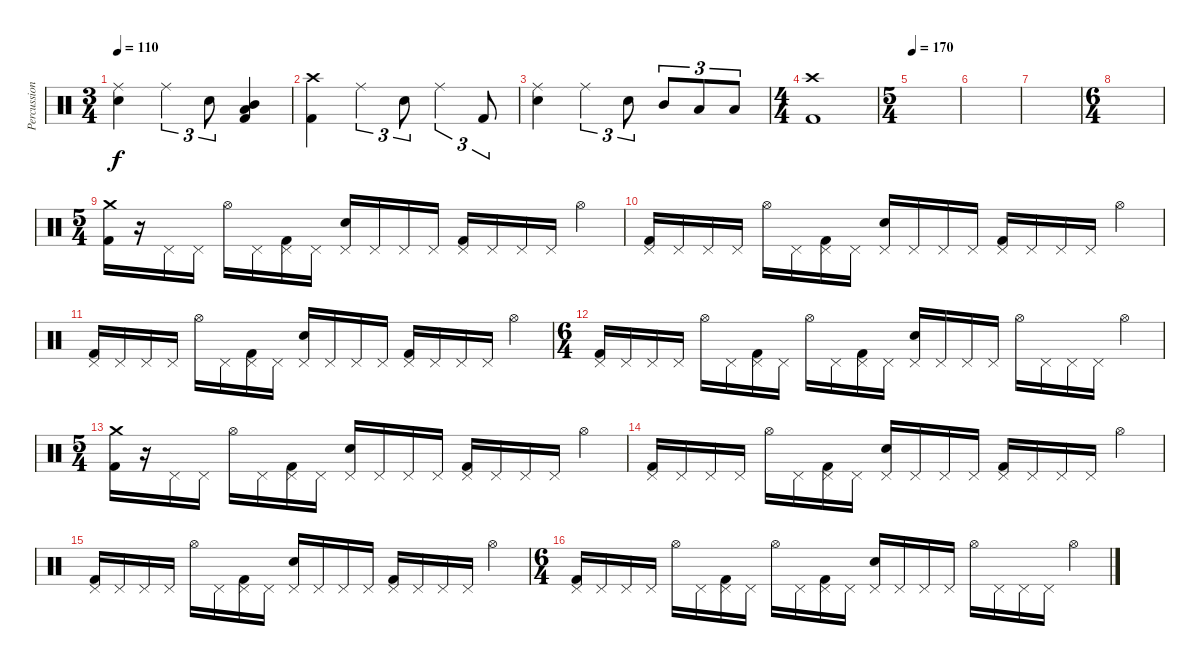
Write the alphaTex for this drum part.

\track ("Percussion" "Percussion") {instrument percussion}
\staff {score}
\articulation defaults
\ts (3 4)
\tempo 110
\clef neutral
\ks c
("Ride (middle)" "Electric Snare (hit)").4{dy f} "Ride (middle)".4{tu (3 2)} "Electric Snare (hit)".8{tu (3 2)} ("Mid Tom (hit)" "Low Floor Tom (hit)" "Kick (hit) 2").4 |
("Crash high (hit)" "Kick (hit) 2").4 "Ride (middle)".4{tu (3 2)} "Electric Snare (hit)".8{tu (3 2)} "Ride (middle)".4{tu (3 2)} "Kick (hit) 2".8{tu (3 2)} |
("Ride (middle)" "Electric Snare (hit)").4 "Ride (middle)".4{tu (3 2)} "Electric Snare (hit)".8{tu (3 2)} "Mid Tom (hit)".8{tu (3 2)} "Low Tom (hit)".8{tu (3 2)} "Low Floor Tom (hit)".8{tu (3 2)} |
\ts (4 4)
("Crash high (hit)" "Kick (hit) 2").1 |
\ts (5 4)
\tempo 170
|
|
|
\ts (6 4)
|
\ts (5 4)
("Crash medium (hit)" "Kick (hit) 2").16 r.16 "Pedal Hi-Hat (hit)".16 "Pedal Hi-Hat (hit)".16 "Hi-Hat (open)".16 "Pedal Hi-Hat (hit)".16 ("Pedal Hi-Hat (hit)" "Kick (hit) 2").16 "Pedal Hi-Hat (hit)".16 ("Pedal Hi-Hat (hit)" "Electric Snare (hit)").16 "Pedal Hi-Hat (hit)".16 "Pedal Hi-Hat (hit)".16 "Pedal Hi-Hat (hit)".16 ("Pedal Hi-Hat (hit)" "Kick (hit) 2").16 "Pedal Hi-Hat (hit)".16 "Pedal Hi-Hat (hit)".16 "Pedal Hi-Hat (hit)".16 "Hi-Hat (open)".4 |
("Pedal Hi-Hat (hit)" "Kick (hit) 2").16 "Pedal Hi-Hat (hit)".16 "Pedal Hi-Hat (hit)".16 "Pedal Hi-Hat (hit)".16 "Hi-Hat (open)".16 "Pedal Hi-Hat (hit)".16 ("Pedal Hi-Hat (hit)" "Kick (hit) 2").16 "Pedal Hi-Hat (hit)".16 ("Pedal Hi-Hat (hit)" "Electric Snare (hit)").16 "Pedal Hi-Hat (hit)".16 "Pedal Hi-Hat (hit)".16 "Pedal Hi-Hat (hit)".16 ("Pedal Hi-Hat (hit)" "Kick (hit) 2").16 "Pedal Hi-Hat (hit)".16 "Pedal Hi-Hat (hit)".16 "Pedal Hi-Hat (hit)".16 "Hi-Hat (open)".4 |
("Pedal Hi-Hat (hit)" "Kick (hit) 2").16 "Pedal Hi-Hat (hit)".16 "Pedal Hi-Hat (hit)".16 "Pedal Hi-Hat (hit)".16 "Hi-Hat (open)".16 "Pedal Hi-Hat (hit)".16 ("Pedal Hi-Hat (hit)" "Kick (hit) 2").16 "Pedal Hi-Hat (hit)".16 ("Pedal Hi-Hat (hit)" "Electric Snare (hit)").16 "Pedal Hi-Hat (hit)".16 "Pedal Hi-Hat (hit)".16 "Pedal Hi-Hat (hit)".16 ("Pedal Hi-Hat (hit)" "Kick (hit) 2").16 "Pedal Hi-Hat (hit)".16 "Pedal Hi-Hat (hit)".16 "Pedal Hi-Hat (hit)".16 "Hi-Hat (open)".4 |
\ts (6 4)
("Pedal Hi-Hat (hit)" "Kick (hit) 2").16 "Pedal Hi-Hat (hit)".16 "Pedal Hi-Hat (hit)".16 "Pedal Hi-Hat (hit)".16 "Hi-Hat (open)".16 "Pedal Hi-Hat (hit)".16 ("Pedal Hi-Hat (hit)" "Kick (hit) 2").16 "Pedal Hi-Hat (hit)".16 "Hi-Hat (open)".16 "Pedal Hi-Hat (hit)".16 ("Pedal Hi-Hat (hit)" "Kick (hit) 2").16 "Pedal Hi-Hat (hit)".16 ("Pedal Hi-Hat (hit)" "Electric Snare (hit)").16 "Pedal Hi-Hat (hit)".16 "Pedal Hi-Hat (hit)".16 "Pedal Hi-Hat (hit)".16 "Hi-Hat (open)".16 "Pedal Hi-Hat (hit)".16 "Pedal Hi-Hat (hit)".16 "Pedal Hi-Hat (hit)".16 "Hi-Hat (open)".4 |
\ts (5 4)
("Crash medium (hit)" "Kick (hit) 2").16 r.16 "Pedal Hi-Hat (hit)".16 "Pedal Hi-Hat (hit)".16 "Hi-Hat (open)".16 "Pedal Hi-Hat (hit)".16 ("Pedal Hi-Hat (hit)" "Kick (hit) 2").16 "Pedal Hi-Hat (hit)".16 ("Pedal Hi-Hat (hit)" "Electric Snare (hit)").16 "Pedal Hi-Hat (hit)".16 "Pedal Hi-Hat (hit)".16 "Pedal Hi-Hat (hit)".16 ("Pedal Hi-Hat (hit)" "Kick (hit) 2").16 "Pedal Hi-Hat (hit)".16 "Pedal Hi-Hat (hit)".16 "Pedal Hi-Hat (hit)".16 "Hi-Hat (open)".4 |
("Pedal Hi-Hat (hit)" "Kick (hit) 2").16 "Pedal Hi-Hat (hit)".16 "Pedal Hi-Hat (hit)".16 "Pedal Hi-Hat (hit)".16 "Hi-Hat (open)".16 "Pedal Hi-Hat (hit)".16 ("Pedal Hi-Hat (hit)" "Kick (hit) 2").16 "Pedal Hi-Hat (hit)".16 ("Pedal Hi-Hat (hit)" "Electric Snare (hit)").16 "Pedal Hi-Hat (hit)".16 "Pedal Hi-Hat (hit)".16 "Pedal Hi-Hat (hit)".16 ("Pedal Hi-Hat (hit)" "Kick (hit) 2").16 "Pedal Hi-Hat (hit)".16 "Pedal Hi-Hat (hit)".16 "Pedal Hi-Hat (hit)".16 "Hi-Hat (open)".4 |
("Pedal Hi-Hat (hit)" "Kick (hit) 2").16 "Pedal Hi-Hat (hit)".16 "Pedal Hi-Hat (hit)".16 "Pedal Hi-Hat (hit)".16 "Hi-Hat (open)".16 "Pedal Hi-Hat (hit)".16 ("Pedal Hi-Hat (hit)" "Kick (hit) 2").16 "Pedal Hi-Hat (hit)".16 ("Pedal Hi-Hat (hit)" "Electric Snare (hit)").16 "Pedal Hi-Hat (hit)".16 "Pedal Hi-Hat (hit)".16 "Pedal Hi-Hat (hit)".16 ("Pedal Hi-Hat (hit)" "Kick (hit) 2").16 "Pedal Hi-Hat (hit)".16 "Pedal Hi-Hat (hit)".16 "Pedal Hi-Hat (hit)".16 "Hi-Hat (open)".4 |
\ts (6 4)
("Pedal Hi-Hat (hit)" "Kick (hit) 2").16 "Pedal Hi-Hat (hit)".16 "Pedal Hi-Hat (hit)".16 "Pedal Hi-Hat (hit)".16 "Hi-Hat (open)".16 "Pedal Hi-Hat (hit)".16 ("Pedal Hi-Hat (hit)" "Kick (hit) 2").16 "Pedal Hi-Hat (hit)".16 "Hi-Hat (open)".16 "Pedal Hi-Hat (hit)".16 ("Pedal Hi-Hat (hit)" "Kick (hit) 2").16 "Pedal Hi-Hat (hit)".16 ("Pedal Hi-Hat (hit)" "Electric Snare (hit)").16 "Pedal Hi-Hat (hit)".16 "Pedal Hi-Hat (hit)".16 "Pedal Hi-Hat (hit)".16 "Hi-Hat (open)".16 "Pedal Hi-Hat (hit)".16 "Pedal Hi-Hat (hit)".16 "Pedal Hi-Hat (hit)".16 "Hi-Hat (open)".4
